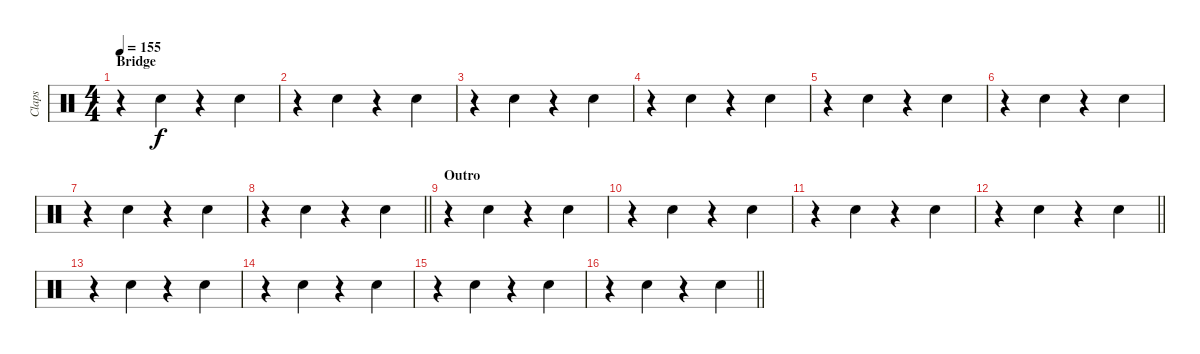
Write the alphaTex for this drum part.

\track ("Claps" "Claps") {instrument percussion}
\staff {score}
\articulation defaults
\ts (4 4)
\section ("" "Bridge")
\tempo 155
\clef neutral
\ks c
r.4{dy f} "Hand Clap (hit)".4 r.4 "Hand Clap (hit)".4 |
r.4 "Hand Clap (hit)".4 r.4 "Hand Clap (hit)".4 |
r.4 "Hand Clap (hit)".4 r.4 "Hand Clap (hit)".4 |
r.4 "Hand Clap (hit)".4 r.4 "Hand Clap (hit)".4 |
r.4 "Hand Clap (hit)".4 r.4 "Hand Clap (hit)".4 |
r.4 "Hand Clap (hit)".4 r.4 "Hand Clap (hit)".4 |
r.4 "Hand Clap (hit)".4 r.4 "Hand Clap (hit)".4 |
\barLineRight lightlight
r.4 "Hand Clap (hit)".4 r.4 "Hand Clap (hit)".4 |
\section ("" "Outro")
r.4 "Hand Clap (hit)".4 r.4 "Hand Clap (hit)".4 |
r.4 "Hand Clap (hit)".4 r.4 "Hand Clap (hit)".4 |
r.4 "Hand Clap (hit)".4 r.4 "Hand Clap (hit)".4 |
\barLineRight lightlight
r.4 "Hand Clap (hit)".4 r.4 "Hand Clap (hit)".4 |
r.4 "Hand Clap (hit)".4 r.4 "Hand Clap (hit)".4 |
r.4{volume 0} "Hand Clap (hit)".4 r.4 "Hand Clap (hit)".4 |
r.4 "Hand Clap (hit)".4 r.4 "Hand Clap (hit)".4 |
\barLineRight lightlight
r.4 "Hand Clap (hit)".4 r.4 "Hand Clap (hit)".4
